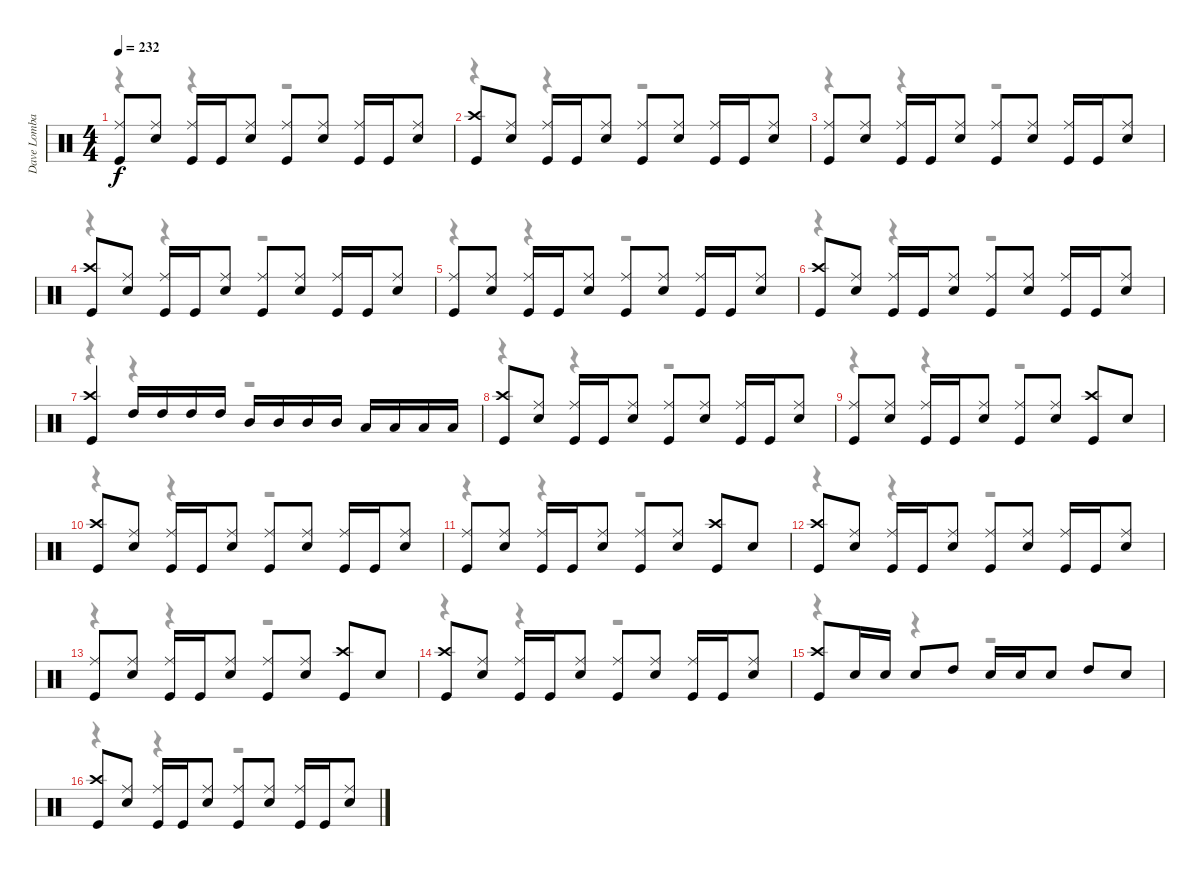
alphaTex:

\track ("Dave Lombardo" "Dave Lomba") {instrument percussion}
\staff {score}
\articulation defaults
\voice
\ts (4 4)
\tempo 232
\clef neutral
\ks c
("Ride (middle)" "Kick (hit)").8{dy f} ("Ride (middle)" "Snare (hit) 2").8 ("Ride (middle)" "Kick (hit)").16 "Kick (hit)".16 ("Ride (middle)" "Snare (hit) 2").8 ("Ride (middle)" "Kick (hit)").8 ("Ride (middle)" "Snare (hit) 2").8 ("Ride (middle)" "Kick (hit)").16 "Kick (hit)".16 ("Ride (middle)" "Snare (hit) 2").8 |
("Crash high (hit)" "Kick (hit)").8 ("Ride (middle)" "Snare (hit) 2").8 ("Ride (middle)" "Kick (hit)").16 "Kick (hit)".16 ("Ride (middle)" "Snare (hit) 2").8 ("Ride (middle)" "Kick (hit)").8 ("Ride (middle)" "Snare (hit) 2").8 ("Ride (middle)" "Kick (hit)").16 "Kick (hit)".16 ("Ride (middle)" "Snare (hit) 2").8 |
("Ride (middle)" "Kick (hit)").8 ("Ride (middle)" "Snare (hit) 2").8 ("Ride (middle)" "Kick (hit)").16 "Kick (hit)".16 ("Ride (middle)" "Snare (hit) 2").8 ("Ride (middle)" "Kick (hit)").8 ("Ride (middle)" "Snare (hit) 2").8 ("Ride (middle)" "Kick (hit)").16 "Kick (hit)".16 ("Ride (middle)" "Snare (hit) 2").8 |
("Crash high (hit)" "Kick (hit)").8 ("Ride (middle)" "Snare (hit) 2").8 ("Ride (middle)" "Kick (hit)").16 "Kick (hit)".16 ("Ride (middle)" "Snare (hit) 2").8 ("Ride (middle)" "Kick (hit)").8 ("Ride (middle)" "Snare (hit) 2").8 ("Ride (middle)" "Kick (hit)").16 "Kick (hit)".16 ("Ride (middle)" "Snare (hit) 2").8 |
("Ride (middle)" "Kick (hit)").8 ("Ride (middle)" "Snare (hit) 2").8 ("Ride (middle)" "Kick (hit)").16 "Kick (hit)".16 ("Ride (middle)" "Snare (hit) 2").8 ("Ride (middle)" "Kick (hit)").8 ("Ride (middle)" "Snare (hit) 2").8 ("Ride (middle)" "Kick (hit)").16 "Kick (hit)".16 ("Ride (middle)" "Snare (hit) 2").8 |
("Crash high (hit)" "Kick (hit)").8 ("Ride (middle)" "Snare (hit) 2").8 ("Ride (middle)" "Kick (hit)").16 "Kick (hit)".16 ("Ride (middle)" "Snare (hit) 2").8 ("Ride (middle)" "Kick (hit)").8 ("Ride (middle)" "Snare (hit) 2").8 ("Ride (middle)" "Kick (hit)").16 "Kick (hit)".16 ("Ride (middle)" "Snare (hit) 2").8 |
("Crash high (hit)" "Kick (hit)").4 "High Tom (hit)".16 "High Tom (hit)".16 "High Tom (hit)".16 "High Tom (hit)".16 "Mid Tom (hit)".16 "Mid Tom (hit)".16 "Mid Tom (hit)".16 "Mid Tom (hit)".16 "Low Tom (hit)".16 "Low Tom (hit)".16 "Low Tom (hit)".16 "Low Tom (hit)".16 |
("Crash high (hit)" "Kick (hit)").8 ("Ride (middle)" "Snare (hit) 2").8 ("Ride (middle)" "Kick (hit)").16 "Kick (hit)".16 ("Ride (middle)" "Snare (hit) 2").8 ("Ride (middle)" "Kick (hit)").8 ("Ride (middle)" "Snare (hit) 2").8 ("Ride (middle)" "Kick (hit)").16 "Kick (hit)".16 ("Ride (middle)" "Snare (hit) 2").8 |
("Ride (middle)" "Kick (hit)").8 ("Ride (middle)" "Snare (hit) 2").8 ("Ride (middle)" "Kick (hit)").16 "Kick (hit)".16 ("Ride (middle)" "Snare (hit) 2").8 ("Ride (middle)" "Kick (hit)").8 ("Ride (middle)" "Snare (hit) 2").8 ("Crash high (hit)" "Kick (hit)").8 "Snare (hit) 2".8 |
("Crash high (hit)" "Kick (hit)").8 ("Ride (middle)" "Snare (hit) 2").8 ("Ride (middle)" "Kick (hit)").16 "Kick (hit)".16 ("Ride (middle)" "Snare (hit) 2").8 ("Ride (middle)" "Kick (hit)").8 ("Ride (middle)" "Snare (hit) 2").8 ("Ride (middle)" "Kick (hit)").16 "Kick (hit)".16 ("Ride (middle)" "Snare (hit) 2").8 |
("Ride (middle)" "Kick (hit)").8 ("Ride (middle)" "Snare (hit) 2").8 ("Ride (middle)" "Kick (hit)").16 "Kick (hit)".16 ("Ride (middle)" "Snare (hit) 2").8 ("Ride (middle)" "Kick (hit)").8 ("Ride (middle)" "Snare (hit) 2").8 ("Crash high (hit)" "Kick (hit)").8 "Snare (hit) 2".8 |
("Crash high (hit)" "Kick (hit)").8 ("Ride (middle)" "Snare (hit) 2").8 ("Ride (middle)" "Kick (hit)").16 "Kick (hit)".16 ("Ride (middle)" "Snare (hit) 2").8 ("Ride (middle)" "Kick (hit)").8 ("Ride (middle)" "Snare (hit) 2").8 ("Ride (middle)" "Kick (hit)").16 "Kick (hit)".16 ("Ride (middle)" "Snare (hit) 2").8 |
("Ride (middle)" "Kick (hit)").8 ("Ride (middle)" "Snare (hit) 2").8 ("Ride (middle)" "Kick (hit)").16 "Kick (hit)".16 ("Ride (middle)" "Snare (hit) 2").8 ("Ride (middle)" "Kick (hit)").8 ("Ride (middle)" "Snare (hit) 2").8 ("Crash high (hit)" "Kick (hit)").8 "Snare (hit) 2".8 |
("Crash high (hit)" "Kick (hit)").8 ("Ride (middle)" "Snare (hit) 2").8 ("Ride (middle)" "Kick (hit)").16 "Kick (hit)".16 ("Ride (middle)" "Snare (hit) 2").8 ("Ride (middle)" "Kick (hit)").8 ("Ride (middle)" "Snare (hit) 2").8 ("Ride (middle)" "Kick (hit)").16 "Kick (hit)".16 ("Ride (middle)" "Snare (hit) 2").8 |
("Crash high (hit)" "Kick (hit)").8 "Snare (hit) 2".16 "Snare (hit) 2".16 "Snare (hit) 2".8 "High Tom (hit)".8 "Snare (hit) 2".16 "Snare (hit) 2".16 "Snare (hit) 2".8 "High Tom (hit)".8 "Snare (hit) 2".8 |
("Crash high (hit)" "Kick (hit)").8 ("Ride (middle)" "Snare (hit) 2").8 ("Ride (middle)" "Kick (hit)").16 "Kick (hit)".16 ("Ride (middle)" "Snare (hit) 2").8 ("Ride (middle)" "Kick (hit)").8 ("Ride (middle)" "Snare (hit) 2").8 ("Ride (middle)" "Kick (hit)").16 "Kick (hit)".16 ("Ride (middle)" "Snare (hit) 2").8
\voice
\clef neutral
\ottava regular
\simile none
\ks c
r.4{dy f} r.4 r.2 |
r.4 r.4 r.2 |
r.4 r.4 r.2 |
r.4 r.4 r.2 |
r.4 r.4 r.2 |
r.4 r.4 r.2 |
r.4 r.4 r.2 |
r.4 r.4 r.2 |
r.4 r.4 r.2 |
r.4 r.4 r.2 |
r.4 r.4 r.2 |
r.4 r.4 r.2 |
r.4 r.4 r.2 |
r.4 r.4 r.2 |
r.4 r.4 r.2 |
r.4 r.4 r.2
